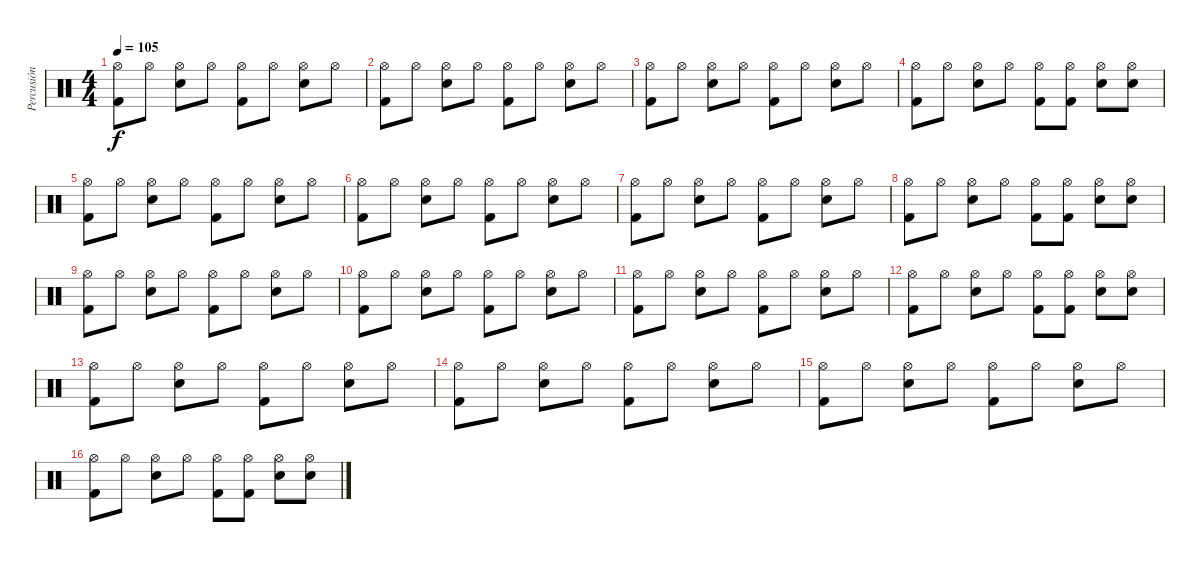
\track ("Percusión" "Percusión") {instrument percussion}
\staff {score}
\articulation defaults
\ts (4 4)
\tempo 105
\clef neutral
\ks c
("Kick (hit) 2" "Hi-Hat (open)").8{dy f} "Hi-Hat (open)".8 ("Electric Snare (hit)" "Hi-Hat (open)").8 "Hi-Hat (open)".8 ("Kick (hit) 2" "Hi-Hat (open)").8 "Hi-Hat (open)".8 ("Electric Snare (hit)" "Hi-Hat (open)").8 "Hi-Hat (open)".8 |
("Kick (hit) 2" "Hi-Hat (open)").8 "Hi-Hat (open)".8 ("Electric Snare (hit)" "Hi-Hat (open)").8 "Hi-Hat (open)".8 ("Kick (hit) 2" "Hi-Hat (open)").8 "Hi-Hat (open)".8 ("Electric Snare (hit)" "Hi-Hat (open)").8 "Hi-Hat (open)".8 |
("Kick (hit) 2" "Hi-Hat (open)").8 "Hi-Hat (open)".8 ("Electric Snare (hit)" "Hi-Hat (open)").8 "Hi-Hat (open)".8 ("Kick (hit) 2" "Hi-Hat (open)").8 "Hi-Hat (open)".8 ("Electric Snare (hit)" "Hi-Hat (open)").8 "Hi-Hat (open)".8 |
("Kick (hit) 2" "Hi-Hat (open)").8 "Hi-Hat (open)".8 ("Electric Snare (hit)" "Hi-Hat (open)").8 "Hi-Hat (open)".8 ("Kick (hit) 2" "Hi-Hat (open)").8 ("Kick (hit) 2" "Hi-Hat (open)").8 ("Electric Snare (hit)" "Hi-Hat (open)").8 ("Electric Snare (hit)" "Hi-Hat (open)").8 |
("Kick (hit) 2" "Hi-Hat (open)").8 "Hi-Hat (open)".8 ("Electric Snare (hit)" "Hi-Hat (open)").8 "Hi-Hat (open)".8 ("Kick (hit) 2" "Hi-Hat (open)").8 "Hi-Hat (open)".8 ("Electric Snare (hit)" "Hi-Hat (open)").8 "Hi-Hat (open)".8 |
("Kick (hit) 2" "Hi-Hat (open)").8 "Hi-Hat (open)".8 ("Electric Snare (hit)" "Hi-Hat (open)").8 "Hi-Hat (open)".8 ("Kick (hit) 2" "Hi-Hat (open)").8 "Hi-Hat (open)".8 ("Electric Snare (hit)" "Hi-Hat (open)").8 "Hi-Hat (open)".8 |
("Kick (hit) 2" "Hi-Hat (open)").8 "Hi-Hat (open)".8 ("Electric Snare (hit)" "Hi-Hat (open)").8 "Hi-Hat (open)".8 ("Kick (hit) 2" "Hi-Hat (open)").8 "Hi-Hat (open)".8 ("Electric Snare (hit)" "Hi-Hat (open)").8 "Hi-Hat (open)".8 |
("Kick (hit) 2" "Hi-Hat (open)").8 "Hi-Hat (open)".8 ("Electric Snare (hit)" "Hi-Hat (open)").8 "Hi-Hat (open)".8 ("Kick (hit) 2" "Hi-Hat (open)").8 ("Kick (hit) 2" "Hi-Hat (open)").8 ("Electric Snare (hit)" "Hi-Hat (open)").8 ("Electric Snare (hit)" "Hi-Hat (open)").8 |
("Kick (hit) 2" "Hi-Hat (open)").8 "Hi-Hat (open)".8 ("Electric Snare (hit)" "Hi-Hat (open)").8 "Hi-Hat (open)".8 ("Kick (hit) 2" "Hi-Hat (open)").8 "Hi-Hat (open)".8 ("Electric Snare (hit)" "Hi-Hat (open)").8 "Hi-Hat (open)".8 |
("Kick (hit) 2" "Hi-Hat (open)").8 "Hi-Hat (open)".8 ("Electric Snare (hit)" "Hi-Hat (open)").8 "Hi-Hat (open)".8 ("Kick (hit) 2" "Hi-Hat (open)").8 "Hi-Hat (open)".8 ("Electric Snare (hit)" "Hi-Hat (open)").8 "Hi-Hat (open)".8 |
("Kick (hit) 2" "Hi-Hat (open)").8 "Hi-Hat (open)".8 ("Electric Snare (hit)" "Hi-Hat (open)").8 "Hi-Hat (open)".8 ("Kick (hit) 2" "Hi-Hat (open)").8 "Hi-Hat (open)".8 ("Electric Snare (hit)" "Hi-Hat (open)").8 "Hi-Hat (open)".8 |
("Kick (hit) 2" "Hi-Hat (open)").8 "Hi-Hat (open)".8 ("Electric Snare (hit)" "Hi-Hat (open)").8 "Hi-Hat (open)".8 ("Kick (hit) 2" "Hi-Hat (open)").8 ("Kick (hit) 2" "Hi-Hat (open)").8 ("Electric Snare (hit)" "Hi-Hat (open)").8 ("Electric Snare (hit)" "Hi-Hat (open)").8 |
("Kick (hit) 2" "Hi-Hat (open)").8 "Hi-Hat (open)".8 ("Electric Snare (hit)" "Hi-Hat (open)").8 "Hi-Hat (open)".8 ("Kick (hit) 2" "Hi-Hat (open)").8 "Hi-Hat (open)".8 ("Electric Snare (hit)" "Hi-Hat (open)").8 "Hi-Hat (open)".8 |
("Kick (hit) 2" "Hi-Hat (open)").8 "Hi-Hat (open)".8 ("Electric Snare (hit)" "Hi-Hat (open)").8 "Hi-Hat (open)".8 ("Kick (hit) 2" "Hi-Hat (open)").8 "Hi-Hat (open)".8 ("Electric Snare (hit)" "Hi-Hat (open)").8 "Hi-Hat (open)".8 |
("Kick (hit) 2" "Hi-Hat (open)").8 "Hi-Hat (open)".8 ("Electric Snare (hit)" "Hi-Hat (open)").8 "Hi-Hat (open)".8 ("Kick (hit) 2" "Hi-Hat (open)").8 "Hi-Hat (open)".8 ("Electric Snare (hit)" "Hi-Hat (open)").8 "Hi-Hat (open)".8 |
("Kick (hit) 2" "Hi-Hat (open)").8 "Hi-Hat (open)".8 ("Electric Snare (hit)" "Hi-Hat (open)").8 "Hi-Hat (open)".8 ("Kick (hit) 2" "Hi-Hat (open)").8 ("Kick (hit) 2" "Hi-Hat (open)").8 ("Electric Snare (hit)" "Hi-Hat (open)").8 ("Electric Snare (hit)" "Hi-Hat (open)").8
